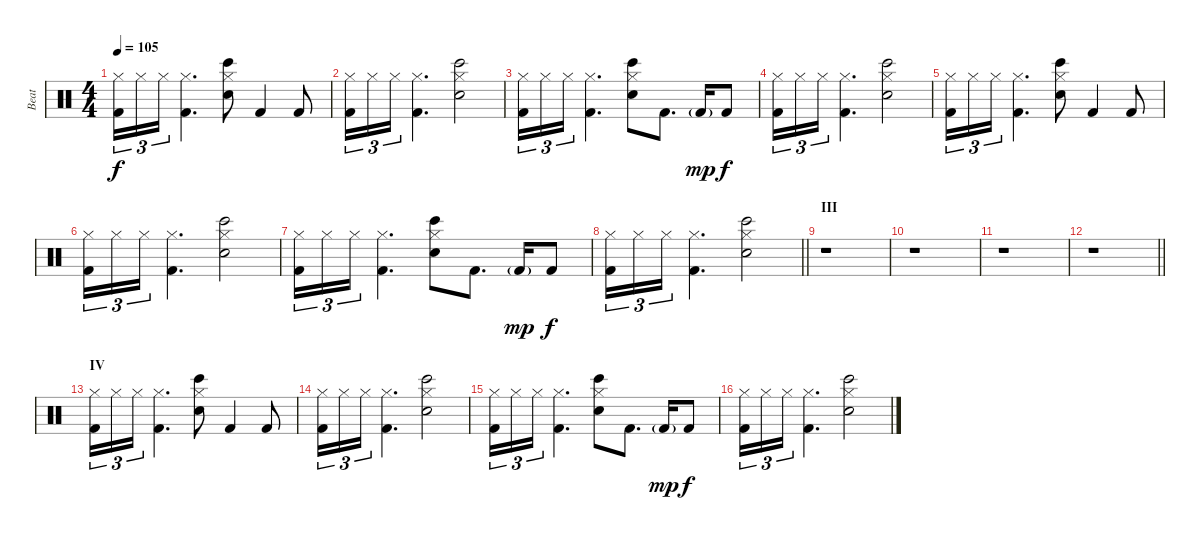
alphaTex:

\track ("Beat" "Beat") {instrument percussion}
\staff {score}
\articulation defaults
\ts (4 4)
\tempo 105
\clef neutral
\ks c
("Hi-Hat (closed)" "Kick (hit) 2").16{tu (3 2) dy f} "Hi-Hat (closed)".16{tu (3 2)} "Hi-Hat (closed)".16{tu (3 2)} ("Hi-Hat (closed)" "Kick (hit) 2").4{d} ("Hi-Hat (closed)" "Snare (hit) 2" "Bongo High (hit)").8 "Kick (hit) 2".4 "Kick (hit) 2".8 |
("Hi-Hat (closed)" "Kick (hit) 2").16{tu (3 2)} "Hi-Hat (closed)".16{tu (3 2)} "Hi-Hat (closed)".16{tu (3 2)} ("Hi-Hat (closed)" "Kick (hit) 2").4{d} ("Hi-Hat (closed)" "Snare (hit) 2" "Bongo High (hit)").2 |
("Hi-Hat (closed)" "Kick (hit) 2").16{tu (3 2)} "Hi-Hat (closed)".16{tu (3 2)} "Hi-Hat (closed)".16{tu (3 2)} ("Hi-Hat (closed)" "Kick (hit) 2").4{d} ("Hi-Hat (closed)" "Snare (hit) 2" "Bongo High (hit)").8 "Kick (hit) 2".8{d} "Kick (hit) 2"{g}.16{dy mp} "Kick (hit) 2".8{dy f} |
("Hi-Hat (closed)" "Kick (hit) 2").16{tu (3 2)} "Hi-Hat (closed)".16{tu (3 2)} "Hi-Hat (closed)".16{tu (3 2)} ("Hi-Hat (closed)" "Kick (hit) 2").4{d} ("Hi-Hat (closed)" "Snare (hit) 2" "Bongo High (hit)").2 |
("Hi-Hat (closed)" "Kick (hit) 2").16{tu (3 2)} "Hi-Hat (closed)".16{tu (3 2)} "Hi-Hat (closed)".16{tu (3 2)} ("Hi-Hat (closed)" "Kick (hit) 2").4{d} ("Hi-Hat (closed)" "Snare (hit) 2" "Bongo High (hit)").8 "Kick (hit) 2".4 "Kick (hit) 2".8 |
("Hi-Hat (closed)" "Kick (hit) 2").16{tu (3 2)} "Hi-Hat (closed)".16{tu (3 2)} "Hi-Hat (closed)".16{tu (3 2)} ("Hi-Hat (closed)" "Kick (hit) 2").4{d} ("Hi-Hat (closed)" "Snare (hit) 2" "Bongo High (hit)").2 |
("Hi-Hat (closed)" "Kick (hit) 2").16{tu (3 2)} "Hi-Hat (closed)".16{tu (3 2)} "Hi-Hat (closed)".16{tu (3 2)} ("Hi-Hat (closed)" "Kick (hit) 2").4{d} ("Hi-Hat (closed)" "Snare (hit) 2" "Bongo High (hit)").8 "Kick (hit) 2".8{d} "Kick (hit) 2"{g}.16{dy mp} "Kick (hit) 2".8{dy f} |
\barLineRight lightlight
("Hi-Hat (closed)" "Kick (hit) 2").16{tu (3 2)} "Hi-Hat (closed)".16{tu (3 2)} "Hi-Hat (closed)".16{tu (3 2)} ("Hi-Hat (closed)" "Kick (hit) 2").4{d} ("Hi-Hat (closed)" "Snare (hit) 2" "Bongo High (hit)").2 |
\section ("" "III")
r.1 |
r.1 |
r.1 |
\barLineRight lightlight
r.1 |
\section ("" "IV")
("Hi-Hat (closed)" "Kick (hit) 2").16{tu (3 2)} "Hi-Hat (closed)".16{tu (3 2)} "Hi-Hat (closed)".16{tu (3 2)} ("Hi-Hat (closed)" "Kick (hit) 2").4{d} ("Hi-Hat (closed)" "Snare (hit) 2" "Bongo High (hit)").8 "Kick (hit) 2".4 "Kick (hit) 2".8 |
("Hi-Hat (closed)" "Kick (hit) 2").16{tu (3 2)} "Hi-Hat (closed)".16{tu (3 2)} "Hi-Hat (closed)".16{tu (3 2)} ("Hi-Hat (closed)" "Kick (hit) 2").4{d} ("Hi-Hat (closed)" "Snare (hit) 2" "Bongo High (hit)").2 |
("Hi-Hat (closed)" "Kick (hit) 2").16{tu (3 2)} "Hi-Hat (closed)".16{tu (3 2)} "Hi-Hat (closed)".16{tu (3 2)} ("Hi-Hat (closed)" "Kick (hit) 2").4{d} ("Hi-Hat (closed)" "Snare (hit) 2" "Bongo High (hit)").8 "Kick (hit) 2".8{d} "Kick (hit) 2"{g}.16{dy mp} "Kick (hit) 2".8{dy f} |
("Hi-Hat (closed)" "Kick (hit) 2").16{tu (3 2)} "Hi-Hat (closed)".16{tu (3 2)} "Hi-Hat (closed)".16{tu (3 2)} ("Hi-Hat (closed)" "Kick (hit) 2").4{d} ("Hi-Hat (closed)" "Snare (hit) 2" "Bongo High (hit)").2
